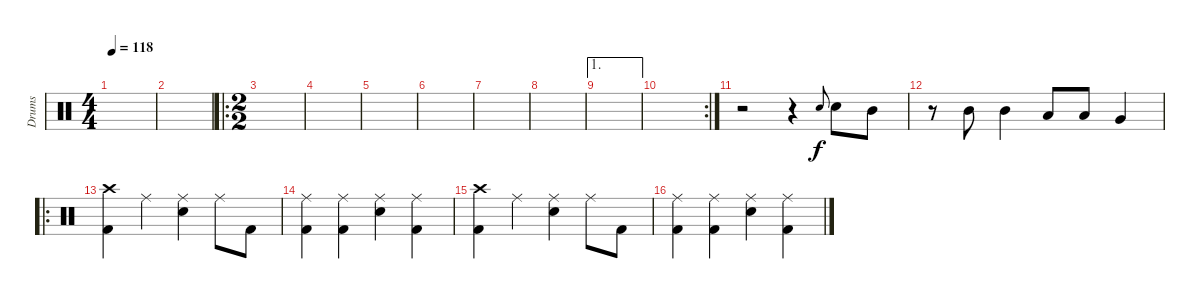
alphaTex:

\track ("Drums" "Drums") {mute instrument percussion}
\staff {score}
\articulation defaults
\ts (4 4)
\tempo 118
\clef neutral
\ks c
|
|
\ro
\ts (2 2)
|
|
|
|
|
|
\ae 1
|
\rc 2
|
r.2 r.4 "Snare (hit) 2".8{gr onbeat} "Snare (hit) 2".8 "Mid Tom (hit)".8 |
r.8 "Mid Tom (hit)".8 "Mid Tom (hit)".4 "Low Tom (hit)".8 "Low Tom (hit)".8 "Very Low Tom (hit)".4 |
\ro
("Crash high (hit)" "Kick (hit) 2").4 "Ride (middle)".4 ("Ride (middle)" "Snare (hit) 2").4 "Ride (middle)".8 "Kick (hit) 2".8 |
("Ride (middle)" "Kick (hit) 2").4 ("Ride (middle)" "Kick (hit) 2").4 ("Ride (middle)" "Snare (hit) 2").4 ("Ride (middle)" "Kick (hit) 2").4 |
("Crash high (hit)" "Kick (hit) 2").4 "Ride (middle)".4 ("Ride (middle)" "Snare (hit) 2").4 "Ride (middle)".8 "Kick (hit) 2".8 |
("Ride (middle)" "Kick (hit) 2").4 ("Ride (middle)" "Kick (hit) 2").4 ("Ride (middle)" "Snare (hit) 2").4 ("Ride (middle)" "Kick (hit) 2").4
